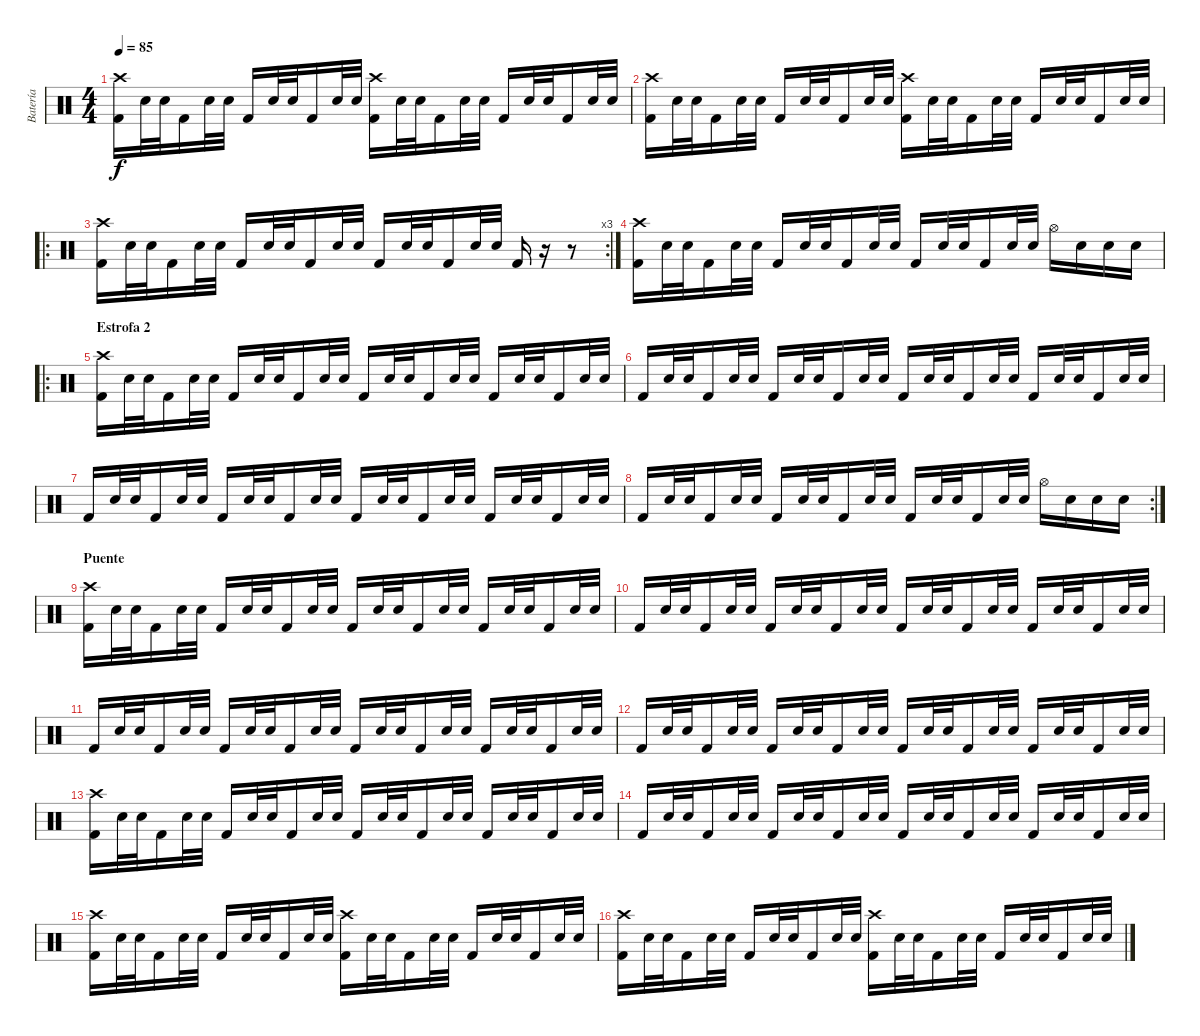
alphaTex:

\track ("Batería" "Batería") {instrument percussion}
\staff {score}
\articulation defaults
\ts (4 4)
\tempo 85
\clef neutral
\ks c
("Crash high (hit)" "Kick (hit) 2").16{dy f} "Snare (hit) 2".32 "Electric Snare (hit)".32 "Kick (hit) 2".16 "Snare (hit) 2".32 "Electric Snare (hit)".32 "Kick (hit) 2".16 "Snare (hit) 2".32 "Electric Snare (hit)".32 "Kick (hit) 2".16 "Snare (hit) 2".32 "Electric Snare (hit)".32 ("Crash high (hit)" "Kick (hit) 2").16 "Snare (hit) 2".32 "Electric Snare (hit)".32 "Kick (hit) 2".16 "Snare (hit) 2".32 "Electric Snare (hit)".32 "Kick (hit) 2".16 "Snare (hit) 2".32 "Electric Snare (hit)".32 "Kick (hit) 2".16 "Snare (hit) 2".32 "Electric Snare (hit)".32 |
("Crash high (hit)" "Kick (hit) 2").16 "Snare (hit) 2".32 "Electric Snare (hit)".32 "Kick (hit) 2".16 "Snare (hit) 2".32 "Electric Snare (hit)".32 "Kick (hit) 2".16 "Snare (hit) 2".32 "Electric Snare (hit)".32 "Kick (hit) 2".16 "Snare (hit) 2".32 "Electric Snare (hit)".32 ("Crash high (hit)" "Kick (hit) 2").16 "Snare (hit) 2".32 "Electric Snare (hit)".32 "Kick (hit) 2".16 "Snare (hit) 2".32 "Electric Snare (hit)".32 "Kick (hit) 2".16 "Snare (hit) 2".32 "Electric Snare (hit)".32 "Kick (hit) 2".16 "Snare (hit) 2".32 "Electric Snare (hit)".32 |
\ro
\rc 3
("Crash high (hit)" "Kick (hit) 2").16 "Snare (hit) 2".32 "Electric Snare (hit)".32 "Kick (hit) 2".16 "Snare (hit) 2".32 "Electric Snare (hit)".32 "Kick (hit) 2".16 "Snare (hit) 2".32 "Electric Snare (hit)".32 "Kick (hit) 2".16 "Snare (hit) 2".32 "Electric Snare (hit)".32 "Kick (hit) 2".16 "Snare (hit) 2".32 "Electric Snare (hit)".32 "Kick (hit) 2".16 "Snare (hit) 2".32 "Electric Snare (hit)".32 "Kick (hit) 2".16 r.16 r.8 |
("Crash high (hit)" "Kick (hit) 2").16 "Snare (hit) 2".32 "Electric Snare (hit)".32 "Kick (hit) 2".16 "Snare (hit) 2".32 "Electric Snare (hit)".32 "Kick (hit) 2".16 "Snare (hit) 2".32 "Electric Snare (hit)".32 "Kick (hit) 2".16 "Snare (hit) 2".32 "Electric Snare (hit)".32 "Kick (hit) 2".16 "Snare (hit) 2".32 "Electric Snare (hit)".32 "Kick (hit) 2".16 "Snare (hit) 2".32 "Electric Snare (hit)".32 "Hi-Hat (open)".16 "Snare (hit) 2".16 "Snare (hit) 2".16 "Snare (hit) 2".16 |
\ro
\section ("" "Estrofa 2")
("Crash high (hit)" "Kick (hit) 2").16 "Snare (hit) 2".32 "Electric Snare (hit)".32 "Kick (hit) 2".16 "Snare (hit) 2".32 "Electric Snare (hit)".32 "Kick (hit) 2".16 "Snare (hit) 2".32 "Electric Snare (hit)".32 "Kick (hit) 2".16 "Snare (hit) 2".32 "Electric Snare (hit)".32 "Kick (hit) 2".16 "Snare (hit) 2".32 "Electric Snare (hit)".32 "Kick (hit) 2".16 "Snare (hit) 2".32 "Electric Snare (hit)".32 "Kick (hit) 2".16 "Snare (hit) 2".32 "Electric Snare (hit)".32 "Kick (hit) 2".16 "Snare (hit) 2".32 "Electric Snare (hit)".32 |
"Kick (hit) 2".16 "Snare (hit) 2".32 "Electric Snare (hit)".32 "Kick (hit) 2".16 "Snare (hit) 2".32 "Electric Snare (hit)".32 "Kick (hit) 2".16 "Snare (hit) 2".32 "Electric Snare (hit)".32 "Kick (hit) 2".16 "Snare (hit) 2".32 "Electric Snare (hit)".32 "Kick (hit) 2".16 "Snare (hit) 2".32 "Electric Snare (hit)".32 "Kick (hit) 2".16 "Snare (hit) 2".32 "Electric Snare (hit)".32 "Kick (hit) 2".16 "Snare (hit) 2".32 "Electric Snare (hit)".32 "Kick (hit) 2".16 "Snare (hit) 2".32 "Electric Snare (hit)".32 |
"Kick (hit) 2".16 "Snare (hit) 2".32 "Electric Snare (hit)".32 "Kick (hit) 2".16 "Snare (hit) 2".32 "Electric Snare (hit)".32 "Kick (hit) 2".16 "Snare (hit) 2".32 "Electric Snare (hit)".32 "Kick (hit) 2".16 "Snare (hit) 2".32 "Electric Snare (hit)".32 "Kick (hit) 2".16 "Snare (hit) 2".32 "Electric Snare (hit)".32 "Kick (hit) 2".16 "Snare (hit) 2".32 "Electric Snare (hit)".32 "Kick (hit) 2".16 "Snare (hit) 2".32 "Electric Snare (hit)".32 "Kick (hit) 2".16 "Snare (hit) 2".32 "Electric Snare (hit)".32 |
\rc 2 "Kick (hit) 2".16 "Snare (hit) 2".32 "Electric Snare (hit)".32 "Kick (hit) 2".16 "Snare (hit) 2".32 "Electric Snare (hit)".32 "Kick (hit) 2".16 "Snare (hit) 2".32 "Electric Snare (hit)".32 "Kick (hit) 2".16 "Snare (hit) 2".32 "Electric Snare (hit)".32 "Kick (hit) 2".16 "Snare (hit) 2".32 "Electric Snare (hit)".32 "Kick (hit) 2".16 "Snare (hit) 2".32 "Electric Snare (hit)".32 "Hi-Hat (open)".16 "Snare (hit) 2".16 "Snare (hit) 2".16 "Snare (hit) 2".16
|
\section ("" "Puente")
("Crash high (hit)" "Kick (hit) 2").16 "Snare (hit) 2".32 "Electric Snare (hit)".32 "Kick (hit) 2".16 "Snare (hit) 2".32 "Electric Snare (hit)".32 "Kick (hit) 2".16 "Snare (hit) 2".32 "Electric Snare (hit)".32 "Kick (hit) 2".16 "Snare (hit) 2".32 "Electric Snare (hit)".32 "Kick (hit) 2".16 "Snare (hit) 2".32 "Electric Snare (hit)".32 "Kick (hit) 2".16 "Snare (hit) 2".32 "Electric Snare (hit)".32 "Kick (hit) 2".16 "Snare (hit) 2".32 "Electric Snare (hit)".32 "Kick (hit) 2".16 "Snare (hit) 2".32 "Electric Snare (hit)".32 |
"Kick (hit) 2".16 "Snare (hit) 2".32 "Electric Snare (hit)".32 "Kick (hit) 2".16 "Snare (hit) 2".32 "Electric Snare (hit)".32 "Kick (hit) 2".16 "Snare (hit) 2".32 "Electric Snare (hit)".32 "Kick (hit) 2".16 "Snare (hit) 2".32 "Electric Snare (hit)".32 "Kick (hit) 2".16 "Snare (hit) 2".32 "Electric Snare (hit)".32 "Kick (hit) 2".16 "Snare (hit) 2".32 "Electric Snare (hit)".32 "Kick (hit) 2".16 "Snare (hit) 2".32 "Electric Snare (hit)".32 "Kick (hit) 2".16 "Snare (hit) 2".32 "Electric Snare (hit)".32 |
"Kick (hit) 2".16 "Snare (hit) 2".32 "Electric Snare (hit)".32 "Kick (hit) 2".16 "Snare (hit) 2".32 "Electric Snare (hit)".32 "Kick (hit) 2".16 "Snare (hit) 2".32 "Electric Snare (hit)".32 "Kick (hit) 2".16 "Snare (hit) 2".32 "Electric Snare (hit)".32 "Kick (hit) 2".16 "Snare (hit) 2".32 "Electric Snare (hit)".32 "Kick (hit) 2".16 "Snare (hit) 2".32 "Electric Snare (hit)".32 "Kick (hit) 2".16 "Snare (hit) 2".32 "Electric Snare (hit)".32 "Kick (hit) 2".16 "Snare (hit) 2".32 "Electric Snare (hit)".32 |
"Kick (hit) 2".16 "Snare (hit) 2".32 "Electric Snare (hit)".32 "Kick (hit) 2".16 "Snare (hit) 2".32 "Electric Snare (hit)".32 "Kick (hit) 2".16 "Snare (hit) 2".32 "Electric Snare (hit)".32 "Kick (hit) 2".16 "Snare (hit) 2".32 "Electric Snare (hit)".32 "Kick (hit) 2".16 "Snare (hit) 2".32 "Electric Snare (hit)".32 "Kick (hit) 2".16 "Snare (hit) 2".32 "Electric Snare (hit)".32 "Kick (hit) 2".16 "Snare (hit) 2".32 "Electric Snare (hit)".32 "Kick (hit) 2".16 "Snare (hit) 2".32 "Electric Snare (hit)".32 |
("Crash high (hit)" "Kick (hit) 2").16 "Snare (hit) 2".32 "Electric Snare (hit)".32 "Kick (hit) 2".16 "Snare (hit) 2".32 "Electric Snare (hit)".32 "Kick (hit) 2".16 "Snare (hit) 2".32 "Electric Snare (hit)".32 "Kick (hit) 2".16 "Snare (hit) 2".32 "Electric Snare (hit)".32 "Kick (hit) 2".16 "Snare (hit) 2".32 "Electric Snare (hit)".32 "Kick (hit) 2".16 "Snare (hit) 2".32 "Electric Snare (hit)".32 "Kick (hit) 2".16 "Snare (hit) 2".32 "Electric Snare (hit)".32 "Kick (hit) 2".16 "Snare (hit) 2".32 "Electric Snare (hit)".32 |
"Kick (hit) 2".16 "Snare (hit) 2".32 "Electric Snare (hit)".32 "Kick (hit) 2".16 "Snare (hit) 2".32 "Electric Snare (hit)".32 "Kick (hit) 2".16 "Snare (hit) 2".32 "Electric Snare (hit)".32 "Kick (hit) 2".16 "Snare (hit) 2".32 "Electric Snare (hit)".32 "Kick (hit) 2".16 "Snare (hit) 2".32 "Electric Snare (hit)".32 "Kick (hit) 2".16 "Snare (hit) 2".32 "Electric Snare (hit)".32 "Kick (hit) 2".16 "Snare (hit) 2".32 "Electric Snare (hit)".32 "Kick (hit) 2".16 "Snare (hit) 2".32 "Electric Snare (hit)".32 |
("Crash high (hit)" "Kick (hit) 2").16 "Snare (hit) 2".32 "Electric Snare (hit)".32 "Kick (hit) 2".16 "Snare (hit) 2".32 "Electric Snare (hit)".32 "Kick (hit) 2".16 "Snare (hit) 2".32 "Electric Snare (hit)".32 "Kick (hit) 2".16 "Snare (hit) 2".32 "Electric Snare (hit)".32 ("Crash high (hit)" "Kick (hit) 2").16 "Snare (hit) 2".32 "Electric Snare (hit)".32 "Kick (hit) 2".16 "Snare (hit) 2".32 "Electric Snare (hit)".32 "Kick (hit) 2".16 "Snare (hit) 2".32 "Electric Snare (hit)".32 "Kick (hit) 2".16 "Snare (hit) 2".32 "Electric Snare (hit)".32 |
("Crash high (hit)" "Kick (hit) 2").16 "Snare (hit) 2".32 "Electric Snare (hit)".32 "Kick (hit) 2".16 "Snare (hit) 2".32 "Electric Snare (hit)".32 "Kick (hit) 2".16 "Snare (hit) 2".32 "Electric Snare (hit)".32 "Kick (hit) 2".16 "Snare (hit) 2".32 "Electric Snare (hit)".32 ("Crash high (hit)" "Kick (hit) 2").16 "Snare (hit) 2".32 "Electric Snare (hit)".32 "Kick (hit) 2".16 "Snare (hit) 2".32 "Electric Snare (hit)".32 "Kick (hit) 2".16 "Snare (hit) 2".32 "Electric Snare (hit)".32 "Kick (hit) 2".16 "Snare (hit) 2".32 "Electric Snare (hit)".32
